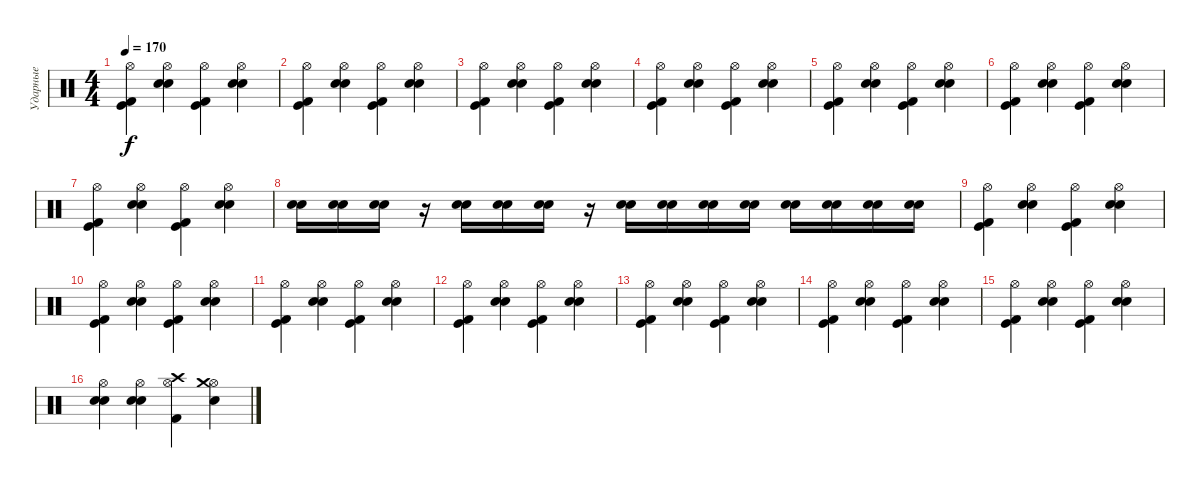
\track ("Ударные" "Ударные") {instrument percussion}
\staff {score}
\articulation defaults
\ts (4 4)
\tempo 170
\clef neutral
\ks c
("Hi-Hat (open)" "Kick (hit)" "Kick (hit) 2").4{dy f} ("Hi-Hat (open)" "Electric Snare (hit)" "Snare (hit) 2").4 ("Hi-Hat (open)" "Kick (hit)" "Kick (hit) 2").4 ("Hi-Hat (open)" "Electric Snare (hit)" "Snare (hit) 2").4 |
("Hi-Hat (open)" "Kick (hit)" "Kick (hit) 2").4 ("Hi-Hat (open)" "Electric Snare (hit)" "Snare (hit) 2").4 ("Hi-Hat (open)" "Kick (hit)" "Kick (hit) 2").4 ("Hi-Hat (open)" "Electric Snare (hit)" "Snare (hit) 2").4 |
("Hi-Hat (open)" "Kick (hit)" "Kick (hit) 2").4 ("Hi-Hat (open)" "Electric Snare (hit)" "Snare (hit) 2").4 ("Hi-Hat (open)" "Kick (hit)" "Kick (hit) 2").4 ("Hi-Hat (open)" "Electric Snare (hit)" "Snare (hit) 2").4 |
("Hi-Hat (open)" "Kick (hit)" "Kick (hit) 2").4 ("Hi-Hat (open)" "Electric Snare (hit)" "Snare (hit) 2").4 ("Hi-Hat (open)" "Kick (hit)" "Kick (hit) 2").4 ("Hi-Hat (open)" "Electric Snare (hit)" "Snare (hit) 2").4 |
("Hi-Hat (open)" "Kick (hit)" "Kick (hit) 2").4 ("Hi-Hat (open)" "Electric Snare (hit)" "Snare (hit) 2").4 ("Hi-Hat (open)" "Kick (hit)" "Kick (hit) 2").4 ("Hi-Hat (open)" "Electric Snare (hit)" "Snare (hit) 2").4 |
("Hi-Hat (open)" "Kick (hit)" "Kick (hit) 2").4 ("Hi-Hat (open)" "Electric Snare (hit)" "Snare (hit) 2").4 ("Hi-Hat (open)" "Kick (hit)" "Kick (hit) 2").4 ("Hi-Hat (open)" "Electric Snare (hit)" "Snare (hit) 2").4 |
("Hi-Hat (open)" "Kick (hit)" "Kick (hit) 2").4 ("Hi-Hat (open)" "Electric Snare (hit)" "Snare (hit) 2").4 ("Hi-Hat (open)" "Kick (hit)" "Kick (hit) 2").4 ("Hi-Hat (open)" "Electric Snare (hit)" "Snare (hit) 2").4 |
("Snare (hit) 2" "Electric Snare (hit)").16 ("Snare (hit) 2" "Electric Snare (hit)").16 ("Snare (hit) 2" "Electric Snare (hit)").16 r.16 ("Snare (hit) 2" "Electric Snare (hit)").16 ("Snare (hit) 2" "Electric Snare (hit)").16 ("Snare (hit) 2" "Electric Snare (hit)").16 r.16 ("Snare (hit) 2" "Electric Snare (hit)").16 ("Snare (hit) 2" "Electric Snare (hit)").16 ("Snare (hit) 2" "Electric Snare (hit)").16 ("Snare (hit) 2" "Electric Snare (hit)").16 ("Snare (hit) 2" "Electric Snare (hit)").16 ("Snare (hit) 2" "Electric Snare (hit)").16 ("Snare (hit) 2" "Electric Snare (hit)").16 ("Snare (hit) 2" "Electric Snare (hit)").16 |
("Hi-Hat (open)" "Kick (hit)" "Kick (hit) 2").4 ("Hi-Hat (open)" "Electric Snare (hit)" "Snare (hit) 2").4 ("Hi-Hat (open)" "Kick (hit)" "Kick (hit) 2").4 ("Hi-Hat (open)" "Electric Snare (hit)" "Snare (hit) 2").4 |
("Hi-Hat (open)" "Kick (hit)" "Kick (hit) 2").4 ("Hi-Hat (open)" "Electric Snare (hit)" "Snare (hit) 2").4 ("Hi-Hat (open)" "Kick (hit)" "Kick (hit) 2").4 ("Hi-Hat (open)" "Electric Snare (hit)" "Snare (hit) 2").4 |
("Hi-Hat (open)" "Kick (hit)" "Kick (hit) 2").4 ("Hi-Hat (open)" "Electric Snare (hit)" "Snare (hit) 2").4 ("Hi-Hat (open)" "Kick (hit)" "Kick (hit) 2").4 ("Hi-Hat (open)" "Electric Snare (hit)" "Snare (hit) 2").4 |
("Hi-Hat (open)" "Kick (hit)" "Kick (hit) 2").4 ("Hi-Hat (open)" "Electric Snare (hit)" "Snare (hit) 2").4 ("Hi-Hat (open)" "Kick (hit)" "Kick (hit) 2").4 ("Hi-Hat (open)" "Electric Snare (hit)" "Snare (hit) 2").4 |
("Hi-Hat (open)" "Kick (hit)" "Kick (hit) 2").4 ("Hi-Hat (open)" "Electric Snare (hit)" "Snare (hit) 2").4 ("Hi-Hat (open)" "Kick (hit)" "Kick (hit) 2").4 ("Hi-Hat (open)" "Electric Snare (hit)" "Snare (hit) 2").4 |
("Hi-Hat (open)" "Kick (hit)" "Kick (hit) 2").4 ("Hi-Hat (open)" "Electric Snare (hit)" "Snare (hit) 2").4 ("Hi-Hat (open)" "Kick (hit)" "Kick (hit) 2").4 ("Hi-Hat (open)" "Electric Snare (hit)" "Snare (hit) 2").4 |
("Hi-Hat (open)" "Kick (hit)" "Kick (hit) 2").4 ("Hi-Hat (open)" "Electric Snare (hit)" "Snare (hit) 2").4 ("Hi-Hat (open)" "Kick (hit)" "Kick (hit) 2").4 ("Hi-Hat (open)" "Electric Snare (hit)" "Snare (hit) 2").4 |
("Hi-Hat (open)" "Electric Snare (hit)" "Snare (hit) 2").4 ("Hi-Hat (open)" "Electric Snare (hit)" "Snare (hit) 2").4 ("Hi-Hat (open)" "Crash high (hit)" "Kick (hit) 2").4 ("Hi-Hat (open)" "Crash medium (hit)" "Snare (hit) 2").4
